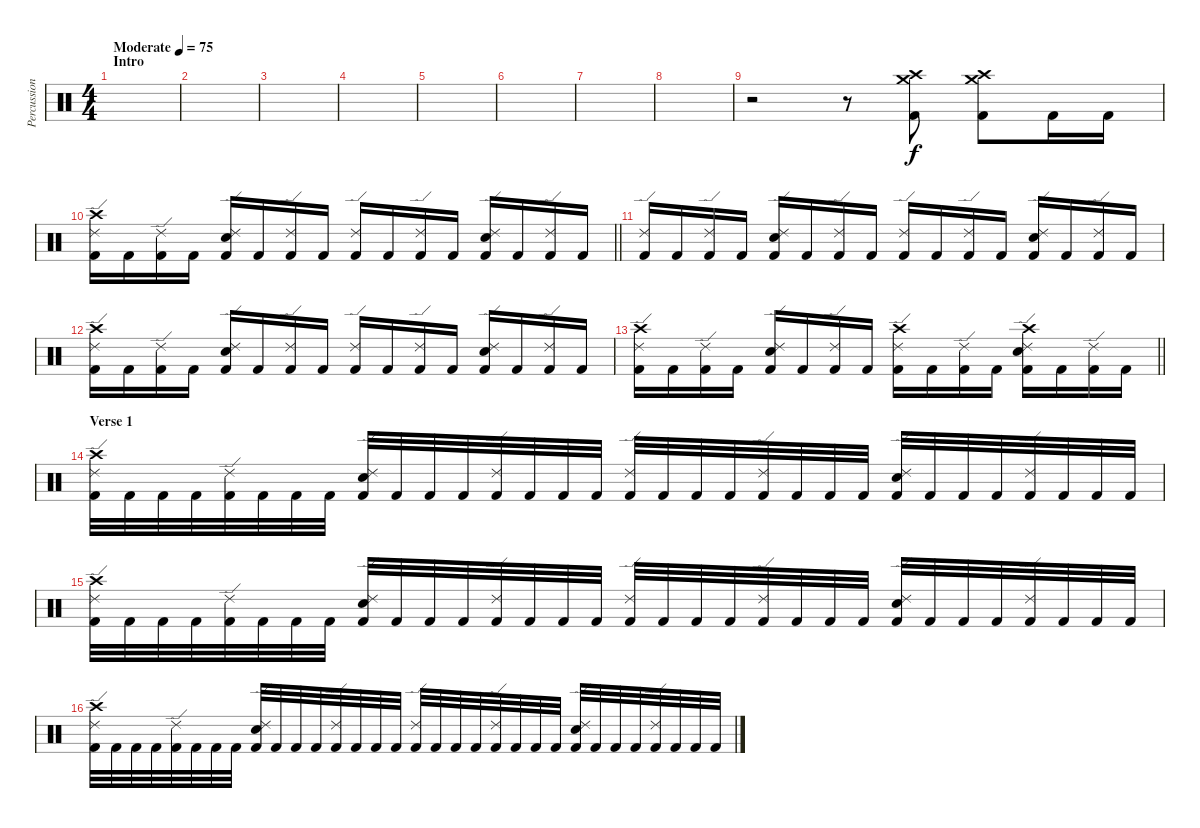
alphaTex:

\track ("Percussion" "Percussion") {instrument percussion}
\staff {score}
\articulation defaults
\ts (4 4)
\section ("" "Intro")
\tempo (75 "Moderate")
\clef neutral
\ks c
|
|
|
|
|
|
|
|
r.2 r.8 ("Crash high (hit)" "Crash medium (hit)" "Kick (hit) 2").8 ("Crash high (hit)" "Crash medium (hit)" "Kick (hit) 2").8 "Kick (hit) 2".16 "Kick (hit) 2".16 |
\barLineRight lightlight
("Crash high (hit)" "Ride (edge) 2" "Kick (hit) 2").16 "Kick (hit) 2".16 ("Ride (edge) 2" "Kick (hit) 2").16 "Kick (hit) 2".16 ("Ride (edge) 2" "Electric Snare (hit)" "Kick (hit) 2").16 "Kick (hit) 2".16 ("Ride (edge) 2" "Kick (hit) 2").16 "Kick (hit) 2".16 ("Ride (edge) 2" "Kick (hit) 2").16 "Kick (hit) 2".16 ("Ride (edge) 2" "Kick (hit) 2").16 "Kick (hit) 2".16 ("Ride (edge) 2" "Electric Snare (hit)" "Kick (hit) 2").16 "Kick (hit) 2".16 ("Ride (edge) 2" "Kick (hit) 2").16 "Kick (hit) 2".16 |
\section ("" "")
("Ride (edge) 2" "Kick (hit) 2").16 "Kick (hit) 2".16 ("Ride (edge) 2" "Kick (hit) 2").16 "Kick (hit) 2".16 ("Ride (edge) 2" "Electric Snare (hit)" "Kick (hit) 2").16 "Kick (hit) 2".16 ("Ride (edge) 2" "Kick (hit) 2").16 "Kick (hit) 2".16 ("Ride (edge) 2" "Kick (hit) 2").16 "Kick (hit) 2".16 ("Ride (edge) 2" "Kick (hit) 2").16 "Kick (hit) 2".16 ("Ride (edge) 2" "Electric Snare (hit)" "Kick (hit) 2").16 "Kick (hit) 2".16 ("Ride (edge) 2" "Kick (hit) 2").16 "Kick (hit) 2".16 |
("Crash high (hit)" "Ride (edge) 2" "Kick (hit) 2").16 "Kick (hit) 2".16 ("Ride (edge) 2" "Kick (hit) 2").16 "Kick (hit) 2".16 ("Ride (edge) 2" "Electric Snare (hit)" "Kick (hit) 2").16 "Kick (hit) 2".16 ("Ride (edge) 2" "Kick (hit) 2").16 "Kick (hit) 2".16 ("Ride (edge) 2" "Kick (hit) 2").16 "Kick (hit) 2".16 ("Ride (edge) 2" "Kick (hit) 2").16 "Kick (hit) 2".16 ("Ride (edge) 2" "Electric Snare (hit)" "Kick (hit) 2").16 "Kick (hit) 2".16 ("Ride (edge) 2" "Kick (hit) 2").16 "Kick (hit) 2".16 |
\barLineRight lightlight
("Crash high (hit)" "Ride (edge) 2" "Kick (hit) 2").16 "Kick (hit) 2".16 ("Ride (edge) 2" "Kick (hit) 2").16 "Kick (hit) 2".16 ("Ride (edge) 2" "Electric Snare (hit)" "Kick (hit) 2").16 "Kick (hit) 2".16 ("Ride (edge) 2" "Kick (hit) 2").16 "Kick (hit) 2".16 ("Crash high (hit)" "Ride (edge) 2" "Kick (hit) 2").16 "Kick (hit) 2".16 ("Ride (edge) 2" "Kick (hit) 2").16 "Kick (hit) 2".16 ("Crash high (hit)" "Ride (edge) 2" "Electric Snare (hit)" "Kick (hit) 2").16 "Kick (hit) 2".16 ("Ride (edge) 2" "Kick (hit) 2").16 "Kick (hit) 2".16 |
\section ("" "Verse 1")
("Crash high (hit)" "Ride (edge) 2" "Kick (hit) 2").32 "Kick (hit) 2".32 "Kick (hit) 2".32 "Kick (hit) 2".32 ("Ride (edge) 2" "Kick (hit) 2").32 "Kick (hit) 2".32 "Kick (hit) 2".32 "Kick (hit) 2".32 ("Ride (edge) 2" "Electric Snare (hit)" "Kick (hit) 2").32 "Kick (hit) 2".32 "Kick (hit) 2".32 "Kick (hit) 2".32 ("Ride (edge) 2" "Kick (hit) 2").32 "Kick (hit) 2".32 "Kick (hit) 2".32 "Kick (hit) 2".32 ("Ride (edge) 2" "Kick (hit) 2").32 "Kick (hit) 2".32 "Kick (hit) 2".32 "Kick (hit) 2".32 ("Ride (edge) 2" "Kick (hit) 2").32 "Kick (hit) 2".32 "Kick (hit) 2".32 "Kick (hit) 2".32 ("Ride (edge) 2" "Electric Snare (hit)" "Kick (hit) 2").32 "Kick (hit) 2".32 "Kick (hit) 2".32 "Kick (hit) 2".32 ("Ride (edge) 2" "Kick (hit) 2").32 "Kick (hit) 2".32 "Kick (hit) 2".32 "Kick (hit) 2".32 |
("Crash high (hit)" "Ride (edge) 2" "Kick (hit) 2").32 "Kick (hit) 2".32 "Kick (hit) 2".32 "Kick (hit) 2".32 ("Ride (edge) 2" "Kick (hit) 2").32 "Kick (hit) 2".32 "Kick (hit) 2".32 "Kick (hit) 2".32 ("Ride (edge) 2" "Electric Snare (hit)" "Kick (hit) 2").32 "Kick (hit) 2".32 "Kick (hit) 2".32 "Kick (hit) 2".32 ("Ride (edge) 2" "Kick (hit) 2").32 "Kick (hit) 2".32 "Kick (hit) 2".32 "Kick (hit) 2".32 ("Ride (edge) 2" "Kick (hit) 2").32 "Kick (hit) 2".32 "Kick (hit) 2".32 "Kick (hit) 2".32 ("Ride (edge) 2" "Kick (hit) 2").32 "Kick (hit) 2".32 "Kick (hit) 2".32 "Kick (hit) 2".32 ("Ride (edge) 2" "Electric Snare (hit)" "Kick (hit) 2").32 "Kick (hit) 2".32 "Kick (hit) 2".32 "Kick (hit) 2".32 ("Ride (edge) 2" "Kick (hit) 2").32 "Kick (hit) 2".32 "Kick (hit) 2".32 "Kick (hit) 2".32 |
("Crash high (hit)" "Ride (edge) 2" "Kick (hit) 2").32 "Kick (hit) 2".32 "Kick (hit) 2".32 "Kick (hit) 2".32 ("Ride (edge) 2" "Kick (hit) 2").32 "Kick (hit) 2".32 "Kick (hit) 2".32 "Kick (hit) 2".32 ("Ride (edge) 2" "Electric Snare (hit)" "Kick (hit) 2").32 "Kick (hit) 2".32 "Kick (hit) 2".32 "Kick (hit) 2".32 ("Ride (edge) 2" "Kick (hit) 2").32 "Kick (hit) 2".32 "Kick (hit) 2".32 "Kick (hit) 2".32 ("Ride (edge) 2" "Kick (hit) 2").32 "Kick (hit) 2".32 "Kick (hit) 2".32 "Kick (hit) 2".32 ("Ride (edge) 2" "Kick (hit) 2").32 "Kick (hit) 2".32 "Kick (hit) 2".32 "Kick (hit) 2".32 ("Ride (edge) 2" "Electric Snare (hit)" "Kick (hit) 2").32 "Kick (hit) 2".32 "Kick (hit) 2".32 "Kick (hit) 2".32 ("Ride (edge) 2" "Kick (hit) 2").32 "Kick (hit) 2".32 "Kick (hit) 2".32 "Kick (hit) 2".32
